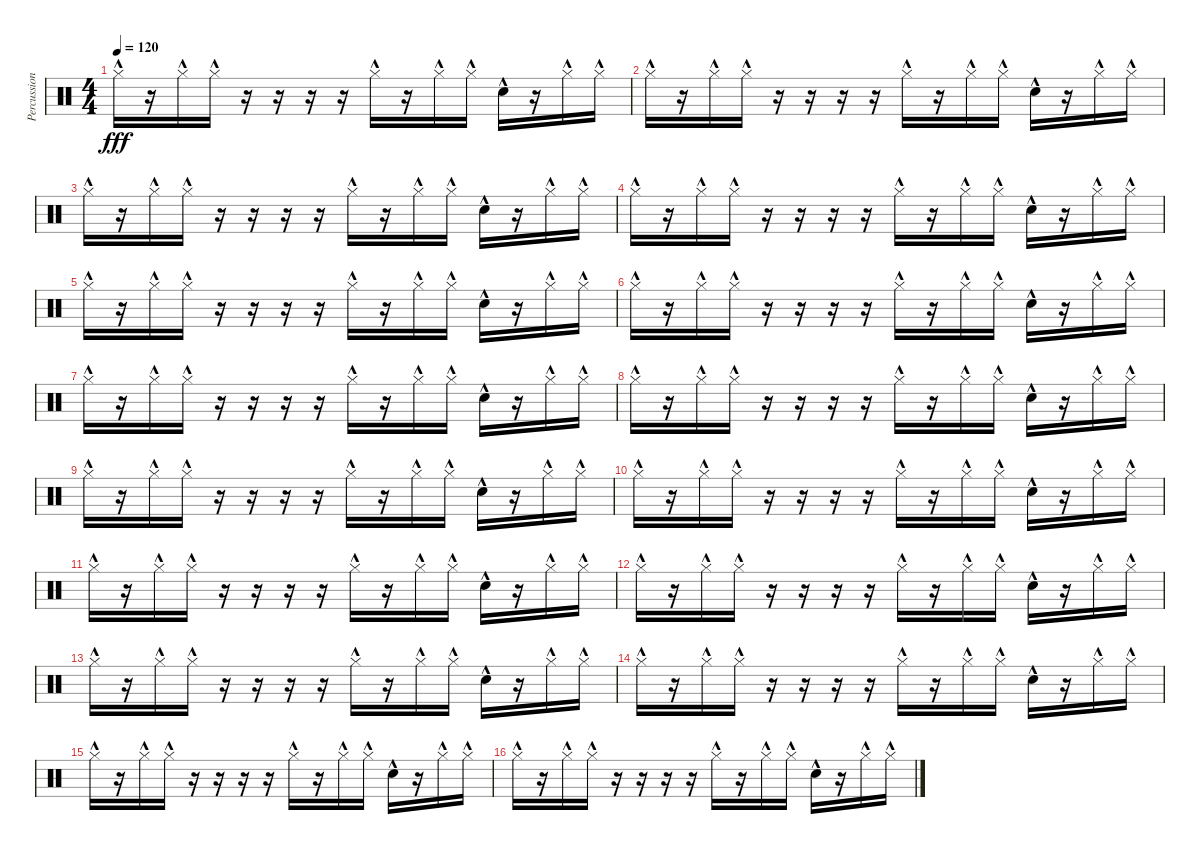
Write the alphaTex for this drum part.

\track ("Percussion" "Percussion") {instrument percussion}
\staff {score}
\articulation defaults
\ts (4 4)
\tempo 120
\clef neutral
\ks c "Hi-Hat (closed)"{hac}.16{dy fff}
r.16 "Hi-Hat (closed)"{hac}.16 "Hi-Hat (closed)"{hac}.16 r.16 r.16 r.16 r.16 "Hi-Hat (closed)"{hac}.16 r.16 "Hi-Hat (closed)"{hac}.16 "Hi-Hat (closed)"{hac}.16 "Snare (hit) 2"{hac}.16 r.16 "Hi-Hat (closed)"{hac}.16 "Hi-Hat (closed)"{hac}.16 |
"Hi-Hat (closed)"{hac}.16 r.16 "Hi-Hat (closed)"{hac}.16 "Hi-Hat (closed)"{hac}.16 r.16 r.16 r.16 r.16 "Hi-Hat (closed)"{hac}.16 r.16 "Hi-Hat (closed)"{hac}.16 "Hi-Hat (closed)"{hac}.16 "Snare (hit) 2"{hac}.16 r.16 "Hi-Hat (closed)"{hac}.16 "Hi-Hat (closed)"{hac}.16 |
"Hi-Hat (closed)"{hac}.16 r.16 "Hi-Hat (closed)"{hac}.16 "Hi-Hat (closed)"{hac}.16 r.16 r.16 r.16 r.16 "Hi-Hat (closed)"{hac}.16 r.16 "Hi-Hat (closed)"{hac}.16 "Hi-Hat (closed)"{hac}.16 "Snare (hit) 2"{hac}.16 r.16 "Hi-Hat (closed)"{hac}.16 "Hi-Hat (closed)"{hac}.16 |
"Hi-Hat (closed)"{hac}.16 r.16 "Hi-Hat (closed)"{hac}.16 "Hi-Hat (closed)"{hac}.16 r.16 r.16 r.16 r.16 "Hi-Hat (closed)"{hac}.16 r.16 "Hi-Hat (closed)"{hac}.16 "Hi-Hat (closed)"{hac}.16 "Snare (hit) 2"{hac}.16 r.16 "Hi-Hat (closed)"{hac}.16 "Hi-Hat (closed)"{hac}.16 |
"Hi-Hat (closed)"{hac}.16 r.16 "Hi-Hat (closed)"{hac}.16 "Hi-Hat (closed)"{hac}.16 r.16 r.16 r.16 r.16 "Hi-Hat (closed)"{hac}.16 r.16 "Hi-Hat (closed)"{hac}.16 "Hi-Hat (closed)"{hac}.16 "Snare (hit) 2"{hac}.16 r.16 "Hi-Hat (closed)"{hac}.16 "Hi-Hat (closed)"{hac}.16 |
"Hi-Hat (closed)"{hac}.16 r.16 "Hi-Hat (closed)"{hac}.16 "Hi-Hat (closed)"{hac}.16 r.16 r.16 r.16 r.16 "Hi-Hat (closed)"{hac}.16 r.16 "Hi-Hat (closed)"{hac}.16 "Hi-Hat (closed)"{hac}.16 "Snare (hit) 2"{hac}.16 r.16 "Hi-Hat (closed)"{hac}.16 "Hi-Hat (closed)"{hac}.16 |
"Hi-Hat (closed)"{hac}.16 r.16 "Hi-Hat (closed)"{hac}.16 "Hi-Hat (closed)"{hac}.16 r.16 r.16 r.16 r.16 "Hi-Hat (closed)"{hac}.16 r.16 "Hi-Hat (closed)"{hac}.16 "Hi-Hat (closed)"{hac}.16 "Snare (hit) 2"{hac}.16 r.16 "Hi-Hat (closed)"{hac}.16 "Hi-Hat (closed)"{hac}.16 |
"Hi-Hat (closed)"{hac}.16 r.16 "Hi-Hat (closed)"{hac}.16 "Hi-Hat (closed)"{hac}.16 r.16 r.16 r.16 r.16 "Hi-Hat (closed)"{hac}.16 r.16 "Hi-Hat (closed)"{hac}.16 "Hi-Hat (closed)"{hac}.16 "Snare (hit) 2"{hac}.16 r.16 "Hi-Hat (closed)"{hac}.16 "Hi-Hat (closed)"{hac}.16 |
"Hi-Hat (closed)"{hac}.16 r.16 "Hi-Hat (closed)"{hac}.16 "Hi-Hat (closed)"{hac}.16 r.16 r.16 r.16 r.16 "Hi-Hat (closed)"{hac}.16 r.16 "Hi-Hat (closed)"{hac}.16 "Hi-Hat (closed)"{hac}.16 "Snare (hit) 2"{hac}.16 r.16 "Hi-Hat (closed)"{hac}.16 "Hi-Hat (closed)"{hac}.16 |
"Hi-Hat (closed)"{hac}.16 r.16 "Hi-Hat (closed)"{hac}.16 "Hi-Hat (closed)"{hac}.16 r.16 r.16 r.16 r.16 "Hi-Hat (closed)"{hac}.16 r.16 "Hi-Hat (closed)"{hac}.16 "Hi-Hat (closed)"{hac}.16 "Snare (hit) 2"{hac}.16 r.16 "Hi-Hat (closed)"{hac}.16 "Hi-Hat (closed)"{hac}.16 |
"Hi-Hat (closed)"{hac}.16 r.16 "Hi-Hat (closed)"{hac}.16 "Hi-Hat (closed)"{hac}.16 r.16 r.16 r.16 r.16 "Hi-Hat (closed)"{hac}.16 r.16 "Hi-Hat (closed)"{hac}.16 "Hi-Hat (closed)"{hac}.16 "Snare (hit) 2"{hac}.16 r.16 "Hi-Hat (closed)"{hac}.16 "Hi-Hat (closed)"{hac}.16 |
"Hi-Hat (closed)"{hac}.16 r.16 "Hi-Hat (closed)"{hac}.16 "Hi-Hat (closed)"{hac}.16 r.16 r.16 r.16 r.16 "Hi-Hat (closed)"{hac}.16 r.16 "Hi-Hat (closed)"{hac}.16 "Hi-Hat (closed)"{hac}.16 "Snare (hit) 2"{hac}.16 r.16 "Hi-Hat (closed)"{hac}.16 "Hi-Hat (closed)"{hac}.16 |
"Hi-Hat (closed)"{hac}.16 r.16 "Hi-Hat (closed)"{hac}.16 "Hi-Hat (closed)"{hac}.16 r.16 r.16 r.16 r.16 "Hi-Hat (closed)"{hac}.16 r.16 "Hi-Hat (closed)"{hac}.16 "Hi-Hat (closed)"{hac}.16 "Snare (hit) 2"{hac}.16 r.16 "Hi-Hat (closed)"{hac}.16 "Hi-Hat (closed)"{hac}.16 |
"Hi-Hat (closed)"{hac}.16 r.16 "Hi-Hat (closed)"{hac}.16 "Hi-Hat (closed)"{hac}.16 r.16 r.16 r.16 r.16 "Hi-Hat (closed)"{hac}.16 r.16 "Hi-Hat (closed)"{hac}.16 "Hi-Hat (closed)"{hac}.16 "Snare (hit) 2"{hac}.16 r.16 "Hi-Hat (closed)"{hac}.16 "Hi-Hat (closed)"{hac}.16 |
"Hi-Hat (closed)"{hac}.16 r.16 "Hi-Hat (closed)"{hac}.16 "Hi-Hat (closed)"{hac}.16 r.16 r.16 r.16 r.16 "Hi-Hat (closed)"{hac}.16 r.16 "Hi-Hat (closed)"{hac}.16 "Hi-Hat (closed)"{hac}.16 "Snare (hit) 2"{hac}.16 r.16 "Hi-Hat (closed)"{hac}.16 "Hi-Hat (closed)"{hac}.16 |
"Hi-Hat (closed)"{hac}.16 r.16 "Hi-Hat (closed)"{hac}.16 "Hi-Hat (closed)"{hac}.16 r.16 r.16 r.16 r.16 "Hi-Hat (closed)"{hac}.16 r.16 "Hi-Hat (closed)"{hac}.16 "Hi-Hat (closed)"{hac}.16 "Snare (hit) 2"{hac}.16 r.16 "Hi-Hat (closed)"{hac}.16 "Hi-Hat (closed)"{hac}.16
